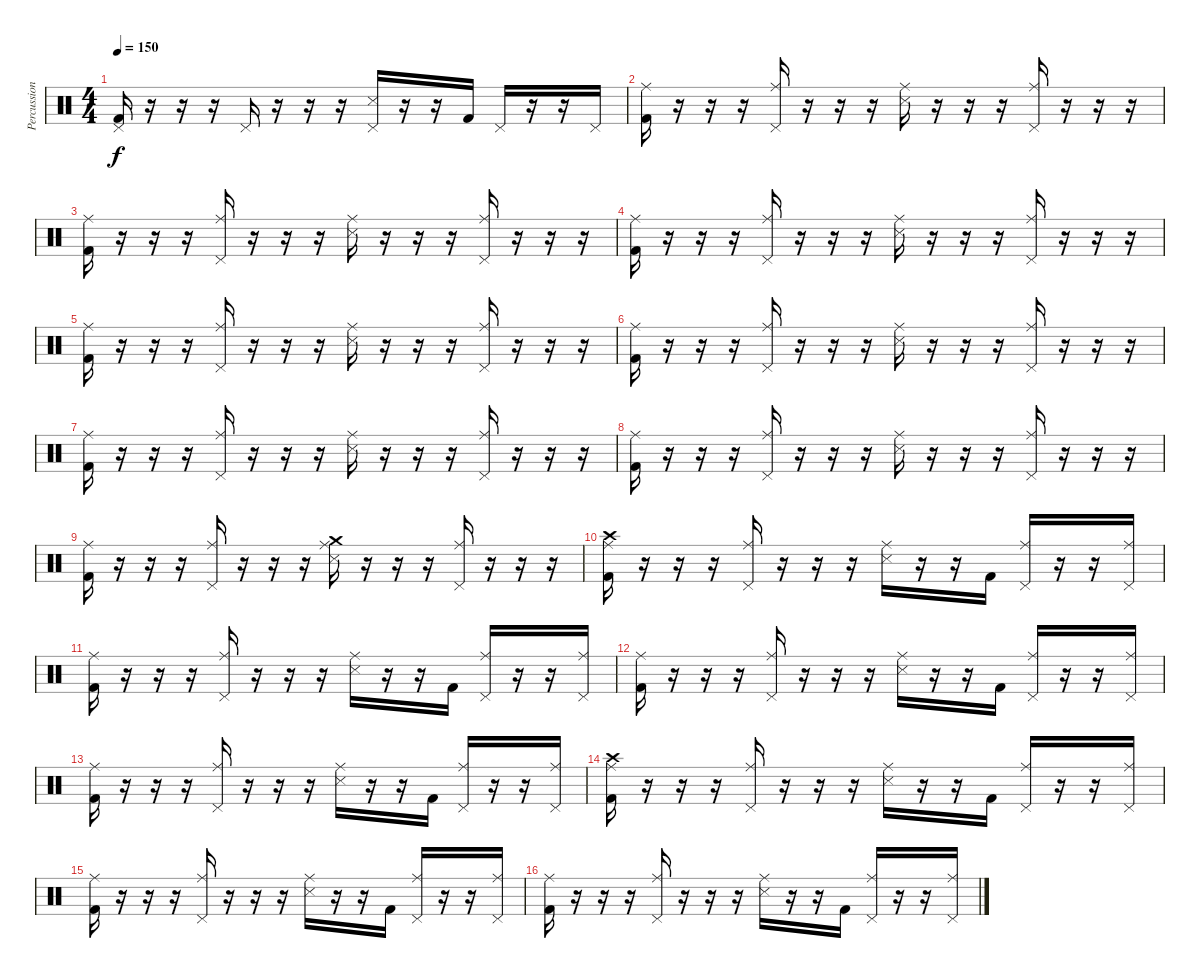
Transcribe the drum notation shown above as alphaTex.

\track ("Percussion" "Percussion") {instrument percussion}
\staff {score}
\articulation defaults
\ts (4 4)
\tempo 150
\clef neutral
\ks c
("Pedal Hi-Hat (hit)" "Kick (hit) 2").16{dy f} r.16 r.16 r.16 "Pedal Hi-Hat (hit)".16 r.16 r.16 r.16 ("Pedal Hi-Hat (hit)" "Snare (side stick) 3").16 r.16 r.16 "Kick (hit) 2".16 "Pedal Hi-Hat (hit)".16 r.16 r.16 "Pedal Hi-Hat (hit)".16 |
("Ride (middle)" "Kick (hit) 2").16 r.16 r.16 r.16 ("Ride (middle)" "Pedal Hi-Hat (hit)").16 r.16 r.16 r.16 ("Ride (middle)" "Snare (side stick) 3").16 r.16 r.16 r.16 ("Ride (middle)" "Pedal Hi-Hat (hit)").16 r.16 r.16 r.16 |
("Ride (middle)" "Kick (hit) 2").16 r.16 r.16 r.16 ("Ride (middle)" "Pedal Hi-Hat (hit)").16 r.16 r.16 r.16 ("Ride (middle)" "Snare (side stick) 3").16 r.16 r.16 r.16 ("Ride (middle)" "Pedal Hi-Hat (hit)").16 r.16 r.16 r.16 |
("Ride (middle)" "Kick (hit) 2").16 r.16 r.16 r.16 ("Ride (middle)" "Pedal Hi-Hat (hit)").16 r.16 r.16 r.16 ("Ride (middle)" "Snare (side stick) 3").16 r.16 r.16 r.16 ("Ride (middle)" "Pedal Hi-Hat (hit)").16 r.16 r.16 r.16 |
("Ride (middle)" "Kick (hit) 2").16 r.16 r.16 r.16 ("Ride (middle)" "Pedal Hi-Hat (hit)").16 r.16 r.16 r.16 ("Ride (middle)" "Snare (side stick) 3").16 r.16 r.16 r.16 ("Ride (middle)" "Pedal Hi-Hat (hit)").16 r.16 r.16 r.16 |
("Ride (middle)" "Kick (hit) 2").16 r.16 r.16 r.16 ("Ride (middle)" "Pedal Hi-Hat (hit)").16 r.16 r.16 r.16 ("Ride (middle)" "Snare (side stick) 3").16 r.16 r.16 r.16 ("Ride (middle)" "Pedal Hi-Hat (hit)").16 r.16 r.16 r.16 |
("Ride (middle)" "Kick (hit) 2").16 r.16 r.16 r.16 ("Ride (middle)" "Pedal Hi-Hat (hit)").16 r.16 r.16 r.16 ("Ride (middle)" "Snare (side stick) 3").16 r.16 r.16 r.16 ("Ride (middle)" "Pedal Hi-Hat (hit)").16 r.16 r.16 r.16 |
("Ride (middle)" "Kick (hit) 2").16 r.16 r.16 r.16 ("Ride (middle)" "Pedal Hi-Hat (hit)").16 r.16 r.16 r.16 ("Ride (middle)" "Snare (side stick) 3").16 r.16 r.16 r.16 ("Ride (middle)" "Pedal Hi-Hat (hit)").16 r.16 r.16 r.16 |
("Ride (middle)" "Kick (hit) 2").16 r.16 r.16 r.16 ("Ride (middle)" "Pedal Hi-Hat (hit)").16 r.16 r.16 r.16 ("Crash medium (hit)" "Ride (middle)" "Snare (side stick) 3").16 r.16 r.16 r.16 ("Ride (middle)" "Pedal Hi-Hat (hit)").16 r.16 r.16 r.16 |
("Crash high (hit)" "Ride (middle)" "Kick (hit) 2").16 r.16 r.16 r.16 ("Ride (middle)" "Pedal Hi-Hat (hit)").16 r.16 r.16 r.16 ("Ride (middle)" "Snare (side stick) 3").16 r.16 r.16 "Kick (hit) 2".16 ("Ride (middle)" "Pedal Hi-Hat (hit)").16 r.16 r.16 ("Ride (middle)" "Pedal Hi-Hat (hit)").16 |
("Ride (middle)" "Kick (hit) 2").16 r.16 r.16 r.16 ("Ride (middle)" "Pedal Hi-Hat (hit)").16 r.16 r.16 r.16 ("Ride (middle)" "Snare (side stick) 3").16 r.16 r.16 "Kick (hit) 2".16 ("Ride (middle)" "Pedal Hi-Hat (hit)").16 r.16 r.16 ("Ride (middle)" "Pedal Hi-Hat (hit)").16 |
("Ride (middle)" "Kick (hit) 2").16 r.16 r.16 r.16 ("Ride (middle)" "Pedal Hi-Hat (hit)").16 r.16 r.16 r.16 ("Ride (middle)" "Snare (side stick) 3").16 r.16 r.16 "Kick (hit) 2".16 ("Ride (middle)" "Pedal Hi-Hat (hit)").16 r.16 r.16 ("Ride (middle)" "Pedal Hi-Hat (hit)").16 |
("Ride (middle)" "Kick (hit) 2").16 r.16 r.16 r.16 ("Ride (middle)" "Pedal Hi-Hat (hit)").16 r.16 r.16 r.16 ("Ride (middle)" "Snare (side stick) 3").16 r.16 r.16 "Kick (hit) 2".16 ("Ride (middle)" "Pedal Hi-Hat (hit)").16 r.16 r.16 ("Ride (middle)" "Pedal Hi-Hat (hit)").16 |
("Crash high (hit)" "Ride (middle)" "Kick (hit) 2").16 r.16 r.16 r.16 ("Ride (middle)" "Pedal Hi-Hat (hit)").16 r.16 r.16 r.16 ("Ride (middle)" "Snare (side stick) 3").16 r.16 r.16 "Kick (hit) 2".16 ("Ride (middle)" "Pedal Hi-Hat (hit)").16 r.16 r.16 ("Ride (middle)" "Pedal Hi-Hat (hit)").16 |
("Ride (middle)" "Kick (hit) 2").16 r.16 r.16 r.16 ("Ride (middle)" "Pedal Hi-Hat (hit)").16 r.16 r.16 r.16 ("Ride (middle)" "Snare (side stick) 3").16 r.16 r.16 "Kick (hit) 2".16 ("Ride (middle)" "Pedal Hi-Hat (hit)").16 r.16 r.16 ("Ride (middle)" "Pedal Hi-Hat (hit)").16 |
("Ride (middle)" "Kick (hit) 2").16 r.16 r.16 r.16 ("Ride (middle)" "Pedal Hi-Hat (hit)").16 r.16 r.16 r.16 ("Ride (middle)" "Snare (side stick) 3").16 r.16 r.16 "Kick (hit) 2".16 ("Ride (middle)" "Pedal Hi-Hat (hit)").16 r.16 r.16 ("Ride (middle)" "Pedal Hi-Hat (hit)").16
